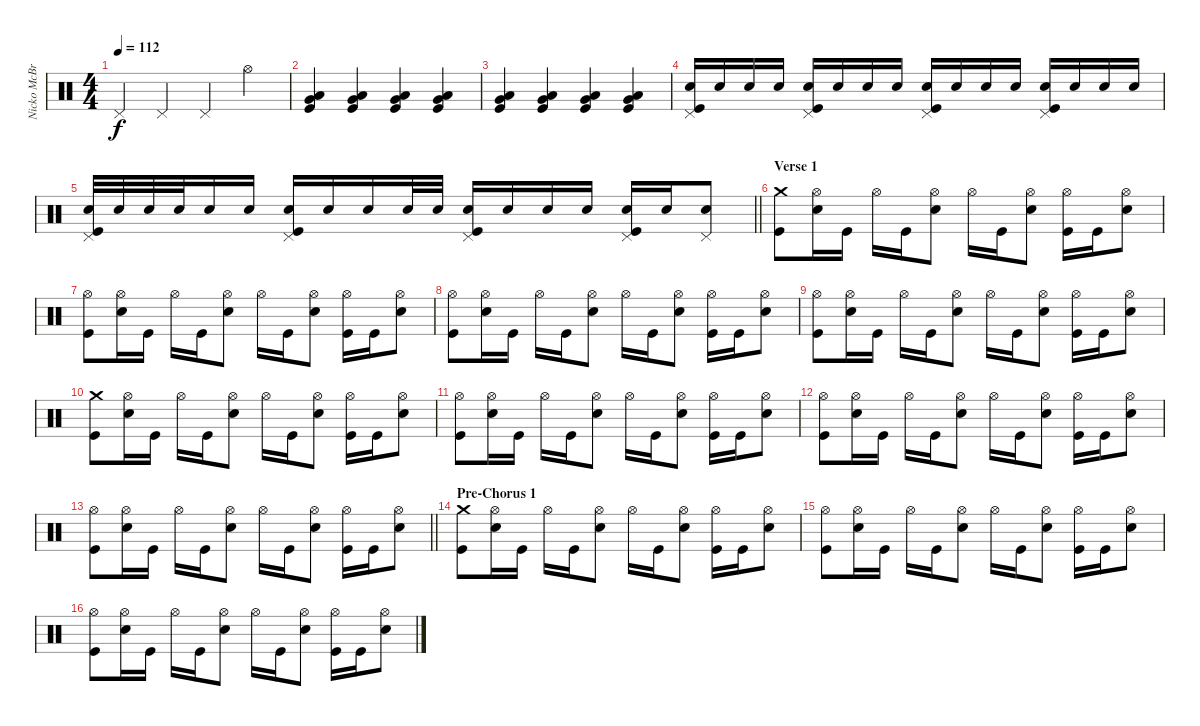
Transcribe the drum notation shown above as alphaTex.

\track ("Nicko McBrain" "Nicko McBr") {instrument percussion}
\staff {score}
\articulation defaults
\ts (4 4)
\tempo 112
\clef neutral
\ks c "Pedal Hi-Hat (hit)".4{dy f} "Pedal Hi-Hat (hit)".4 "Pedal Hi-Hat (hit)".4 "Hi-Hat (open)".4
|
("Very Low Tom (hit)" "Low Floor Tom (hit)" "Kick (hit)").4 ("Very Low Tom (hit)" "Low Floor Tom (hit)" "Kick (hit)").4 ("Very Low Tom (hit)" "Low Floor Tom (hit)" "Kick (hit)").4 ("Very Low Tom (hit)" "Low Floor Tom (hit)" "Kick (hit)").4 |
("Very Low Tom (hit)" "Low Floor Tom (hit)" "Kick (hit)").4 ("Very Low Tom (hit)" "Low Floor Tom (hit)" "Kick (hit)").4 ("Very Low Tom (hit)" "Low Floor Tom (hit)" "Kick (hit)").4 ("Very Low Tom (hit)" "Low Floor Tom (hit)" "Kick (hit)").4 |
("Snare (hit) 2" "Pedal Hi-Hat (hit)" "Kick (hit)").16 "Snare (hit) 2".16 "Snare (hit) 2".16 "Snare (hit) 2".16 ("Snare (hit) 2" "Pedal Hi-Hat (hit)" "Kick (hit)").16 "Snare (hit) 2".16 "Snare (hit) 2".16 "Snare (hit) 2".16 ("Snare (hit) 2" "Pedal Hi-Hat (hit)" "Kick (hit)").16 "Snare (hit) 2".16 "Snare (hit) 2".16 "Snare (hit) 2".16 ("Snare (hit) 2" "Pedal Hi-Hat (hit)" "Kick (hit)").16 "Snare (hit) 2".16 "Snare (hit) 2".16 "Snare (hit) 2".16 |
\barLineRight lightlight
("Snare (hit) 2" "Pedal Hi-Hat (hit)" "Kick (hit)").32 "Snare (hit) 2".32 "Snare (hit) 2".32 "Snare (hit) 2".32 "Snare (hit) 2".16 "Snare (hit) 2".16 ("Snare (hit) 2" "Pedal Hi-Hat (hit)" "Kick (hit)").16 "Snare (hit) 2".16 "Snare (hit) 2".16 "Snare (hit) 2".32 "Snare (hit) 2".32 ("Snare (hit) 2" "Pedal Hi-Hat (hit)" "Kick (hit)").16 "Snare (hit) 2".16 "Snare (hit) 2".16 "Snare (hit) 2".16 ("Snare (hit) 2" "Pedal Hi-Hat (hit)" "Kick (hit)").16 "Snare (hit) 2".16 ("Snare (hit) 2" "Pedal Hi-Hat (hit)").8 |
\section ("" "Verse 1")
("Crash medium (hit)" "Kick (hit)").8 ("Hi-Hat (open)" "Snare (hit) 2").16 "Kick (hit)".16 "Hi-Hat (open)".16 "Kick (hit)".16 ("Hi-Hat (open)" "Snare (hit) 2").8 "Hi-Hat (open)".16 "Kick (hit)".16 ("Hi-Hat (open)" "Snare (hit) 2").8 ("Hi-Hat (open)" "Kick (hit)").16 "Kick (hit)".16 ("Hi-Hat (open)" "Snare (hit) 2").8 |
("Hi-Hat (open)" "Kick (hit)").8 ("Hi-Hat (open)" "Snare (hit) 2").16 "Kick (hit)".16 "Hi-Hat (open)".16 "Kick (hit)".16 ("Hi-Hat (open)" "Snare (hit) 2").8 "Hi-Hat (open)".16 "Kick (hit)".16 ("Hi-Hat (open)" "Snare (hit) 2").8 ("Hi-Hat (open)" "Kick (hit)").16 "Kick (hit)".16 ("Hi-Hat (open)" "Snare (hit) 2").8 |
("Hi-Hat (open)" "Kick (hit)").8 ("Hi-Hat (open)" "Snare (hit) 2").16 "Kick (hit)".16 "Hi-Hat (open)".16 "Kick (hit)".16 ("Hi-Hat (open)" "Snare (hit) 2").8 "Hi-Hat (open)".16 "Kick (hit)".16 ("Hi-Hat (open)" "Snare (hit) 2").8 ("Hi-Hat (open)" "Kick (hit)").16 "Kick (hit)".16 ("Hi-Hat (open)" "Snare (hit) 2").8 |
("Hi-Hat (open)" "Kick (hit)").8 ("Hi-Hat (open)" "Snare (hit) 2").16 "Kick (hit)".16 "Hi-Hat (open)".16 "Kick (hit)".16 ("Hi-Hat (open)" "Snare (hit) 2").8 "Hi-Hat (open)".16 "Kick (hit)".16 ("Hi-Hat (open)" "Snare (hit) 2").8 ("Hi-Hat (open)" "Kick (hit)").16 "Kick (hit)".16 ("Hi-Hat (open)" "Snare (hit) 2").8 |
("Crash medium (hit)" "Kick (hit)").8 ("Hi-Hat (open)" "Snare (hit) 2").16 "Kick (hit)".16 "Hi-Hat (open)".16 "Kick (hit)".16 ("Hi-Hat (open)" "Snare (hit) 2").8 "Hi-Hat (open)".16 "Kick (hit)".16 ("Hi-Hat (open)" "Snare (hit) 2").8 ("Hi-Hat (open)" "Kick (hit)").16 "Kick (hit)".16 ("Hi-Hat (open)" "Snare (hit) 2").8 |
("Hi-Hat (open)" "Kick (hit)").8 ("Hi-Hat (open)" "Snare (hit) 2").16 "Kick (hit)".16 "Hi-Hat (open)".16 "Kick (hit)".16 ("Hi-Hat (open)" "Snare (hit) 2").8 "Hi-Hat (open)".16 "Kick (hit)".16 ("Hi-Hat (open)" "Snare (hit) 2").8 ("Hi-Hat (open)" "Kick (hit)").16 "Kick (hit)".16 ("Hi-Hat (open)" "Snare (hit) 2").8 |
("Hi-Hat (open)" "Kick (hit)").8 ("Hi-Hat (open)" "Snare (hit) 2").16 "Kick (hit)".16 "Hi-Hat (open)".16 "Kick (hit)".16 ("Hi-Hat (open)" "Snare (hit) 2").8 "Hi-Hat (open)".16 "Kick (hit)".16 ("Hi-Hat (open)" "Snare (hit) 2").8 ("Hi-Hat (open)" "Kick (hit)").16 "Kick (hit)".16 ("Hi-Hat (open)" "Snare (hit) 2").8 |
\barLineRight lightlight
("Hi-Hat (open)" "Kick (hit)").8 ("Hi-Hat (open)" "Snare (hit) 2").16 "Kick (hit)".16 "Hi-Hat (open)".16 "Kick (hit)".16 ("Hi-Hat (open)" "Snare (hit) 2").8 "Hi-Hat (open)".16 "Kick (hit)".16 ("Hi-Hat (open)" "Snare (hit) 2").8 ("Hi-Hat (open)" "Kick (hit)").16 "Kick (hit)".16 ("Hi-Hat (open)" "Snare (hit) 2").8 |
\section ("" "Pre-Chorus 1")
("Crash medium (hit)" "Kick (hit)").8 ("Hi-Hat (open)" "Snare (hit) 2").16 "Kick (hit)".16 "Hi-Hat (open)".16 "Kick (hit)".16 ("Hi-Hat (open)" "Snare (hit) 2").8 "Hi-Hat (open)".16 "Kick (hit)".16 ("Hi-Hat (open)" "Snare (hit) 2").8 ("Hi-Hat (open)" "Kick (hit)").16 "Kick (hit)".16 ("Hi-Hat (open)" "Snare (hit) 2").8 |
("Hi-Hat (open)" "Kick (hit)").8 ("Hi-Hat (open)" "Snare (hit) 2").16 "Kick (hit)".16 "Hi-Hat (open)".16 "Kick (hit)".16 ("Hi-Hat (open)" "Snare (hit) 2").8 "Hi-Hat (open)".16 "Kick (hit)".16 ("Hi-Hat (open)" "Snare (hit) 2").8 ("Hi-Hat (open)" "Kick (hit)").16 "Kick (hit)".16 ("Hi-Hat (open)" "Snare (hit) 2").8 |
("Hi-Hat (open)" "Kick (hit)").8 ("Hi-Hat (open)" "Snare (hit) 2").16 "Kick (hit)".16 "Hi-Hat (open)".16 "Kick (hit)".16 ("Hi-Hat (open)" "Snare (hit) 2").8 "Hi-Hat (open)".16 "Kick (hit)".16 ("Hi-Hat (open)" "Snare (hit) 2").8 ("Hi-Hat (open)" "Kick (hit)").16 "Kick (hit)".16 ("Hi-Hat (open)" "Snare (hit) 2").8
